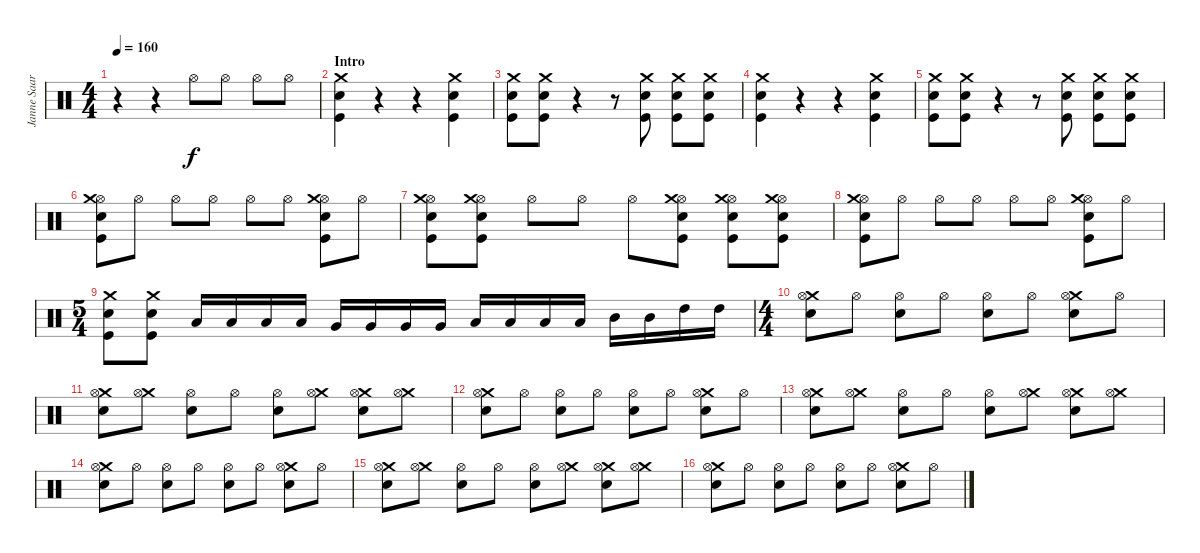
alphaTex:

\track ("Janne Saarenpaa" "Janne Saar") {instrument percussion}
\staff {score}
\articulation defaults
\ts (4 4)
\tempo 160
\clef neutral
\ks c
r.4{dy f} r.4 "Hi-Hat (open)".8 "Hi-Hat (open)".8 "Hi-Hat (open)".8 "Hi-Hat (open)".8 |
\section ("" "Intro")
("Kick (hit)" "Snare (hit) 2" "Crash medium (hit)").4 r.4 r.4 ("Kick (hit)" "Snare (hit) 2" "Crash medium (hit)").4 |
("Kick (hit)" "Snare (hit) 2" "Crash medium (hit)").8 ("Kick (hit)" "Snare (hit) 2" "Crash medium (hit)").8 r.4 r.8 ("Kick (hit)" "Snare (hit) 2" "Crash medium (hit)").8 ("Kick (hit)" "Snare (hit) 2" "Crash medium (hit)").8 ("Kick (hit)" "Snare (hit) 2" "Crash medium (hit)").8 |
("Kick (hit)" "Snare (hit) 2" "Crash medium (hit)").4 r.4 r.4 ("Kick (hit)" "Snare (hit) 2" "Crash medium (hit)").4 |
("Kick (hit)" "Snare (hit) 2" "Crash medium (hit)").8 ("Kick (hit)" "Snare (hit) 2" "Crash medium (hit)").8 r.4 r.8 ("Kick (hit)" "Snare (hit) 2" "Crash medium (hit)").8 ("Kick (hit)" "Snare (hit) 2" "Crash medium (hit)").8 ("Kick (hit)" "Snare (hit) 2" "Crash medium (hit)").8 |
("Hi-Hat (open)" "Kick (hit)" "Snare (hit) 2" "Crash medium (hit)").8 "Hi-Hat (open)".8 "Hi-Hat (open)".8 "Hi-Hat (open)".8 "Hi-Hat (open)".8 "Hi-Hat (open)".8 ("Hi-Hat (open)" "Kick (hit)" "Snare (hit) 2" "Crash medium (hit)").8 "Hi-Hat (open)".8 |
("Hi-Hat (open)" "Kick (hit)" "Snare (hit) 2" "Crash medium (hit)").8 ("Hi-Hat (open)" "Kick (hit)" "Snare (hit) 2" "Crash medium (hit)").8 "Hi-Hat (open)".8 "Hi-Hat (open)".8 "Hi-Hat (open)".8 ("Hi-Hat (open)" "Kick (hit)" "Snare (hit) 2" "Crash medium (hit)").8 ("Hi-Hat (open)" "Kick (hit)" "Snare (hit) 2" "Crash medium (hit)").8 ("Hi-Hat (open)" "Kick (hit)" "Snare (hit) 2" "Crash medium (hit)").8 |
("Hi-Hat (open)" "Kick (hit)" "Snare (hit) 2" "Crash medium (hit)").8 "Hi-Hat (open)".8 "Hi-Hat (open)".8 "Hi-Hat (open)".8 "Hi-Hat (open)".8 "Hi-Hat (open)".8 ("Hi-Hat (open)" "Kick (hit)" "Snare (hit) 2" "Crash medium (hit)").8 "Hi-Hat (open)".8 |
\ts (5 4)
("Kick (hit)" "Snare (hit) 2" "Crash medium (hit)").8 ("Kick (hit)" "Snare (hit) 2" "Crash medium (hit)").8 "Low Floor Tom (hit)".16 "Low Floor Tom (hit)".16 "Low Floor Tom (hit)".16 "Low Floor Tom (hit)".16 "Very Low Tom (hit)".16 "Very Low Tom (hit)".16 "Very Low Tom (hit)".16 "Very Low Tom (hit)".16 "Low Tom (hit)".16 "Low Tom (hit)".16 "Low Tom (hit)".16 "Low Tom (hit)".16 "Mid Tom (hit)".16 "Mid Tom (hit)".16 "High Tom (hit)".16 "High Tom (hit)".16 |
\ts (4 4)
("Snare (hit) 2" "Crash medium (hit)" "Hi-Hat (open)").8 "Hi-Hat (open)".8 ("Snare (hit) 2" "Hi-Hat (open)").8 "Hi-Hat (open)".8 ("Snare (hit) 2" "Hi-Hat (open)").8 "Hi-Hat (open)".8 ("Snare (hit) 2" "Crash medium (hit)" "Hi-Hat (open)").8 "Hi-Hat (open)".8 |
("Snare (hit) 2" "Crash medium (hit)" "Hi-Hat (open)").8 ("Crash medium (hit)" "Hi-Hat (open)").8 ("Snare (hit) 2" "Hi-Hat (open)").8 "Hi-Hat (open)".8 ("Snare (hit) 2" "Hi-Hat (open)").8 ("Crash medium (hit)" "Hi-Hat (open)").8 ("Snare (hit) 2" "Crash medium (hit)" "Hi-Hat (open)").8 ("Crash medium (hit)" "Hi-Hat (open)").8 |
("Snare (hit) 2" "Crash medium (hit)" "Hi-Hat (open)").8 "Hi-Hat (open)".8 ("Snare (hit) 2" "Hi-Hat (open)").8 "Hi-Hat (open)".8 ("Snare (hit) 2" "Hi-Hat (open)").8 "Hi-Hat (open)".8 ("Snare (hit) 2" "Crash medium (hit)" "Hi-Hat (open)").8 "Hi-Hat (open)".8 |
("Snare (hit) 2" "Crash medium (hit)" "Hi-Hat (open)").8 ("Crash medium (hit)" "Hi-Hat (open)").8 ("Snare (hit) 2" "Hi-Hat (open)").8 "Hi-Hat (open)".8 ("Snare (hit) 2" "Hi-Hat (open)").8 ("Crash medium (hit)" "Hi-Hat (open)").8 ("Snare (hit) 2" "Crash medium (hit)" "Hi-Hat (open)").8 ("Crash medium (hit)" "Hi-Hat (open)").8 |
("Snare (hit) 2" "Crash medium (hit)" "Hi-Hat (open)").8 "Hi-Hat (open)".8 ("Snare (hit) 2" "Hi-Hat (open)").8 "Hi-Hat (open)".8 ("Snare (hit) 2" "Hi-Hat (open)").8 "Hi-Hat (open)".8 ("Snare (hit) 2" "Crash medium (hit)" "Hi-Hat (open)").8 "Hi-Hat (open)".8 |
("Snare (hit) 2" "Crash medium (hit)" "Hi-Hat (open)").8 ("Crash medium (hit)" "Hi-Hat (open)").8 ("Snare (hit) 2" "Hi-Hat (open)").8 "Hi-Hat (open)".8 ("Snare (hit) 2" "Hi-Hat (open)").8 ("Crash medium (hit)" "Hi-Hat (open)").8 ("Snare (hit) 2" "Crash medium (hit)" "Hi-Hat (open)").8 ("Crash medium (hit)" "Hi-Hat (open)").8 |
("Snare (hit) 2" "Crash medium (hit)" "Hi-Hat (open)").8 "Hi-Hat (open)".8 ("Snare (hit) 2" "Hi-Hat (open)").8 "Hi-Hat (open)".8 ("Snare (hit) 2" "Hi-Hat (open)").8 "Hi-Hat (open)".8 ("Snare (hit) 2" "Crash medium (hit)" "Hi-Hat (open)").8 "Hi-Hat (open)".8
